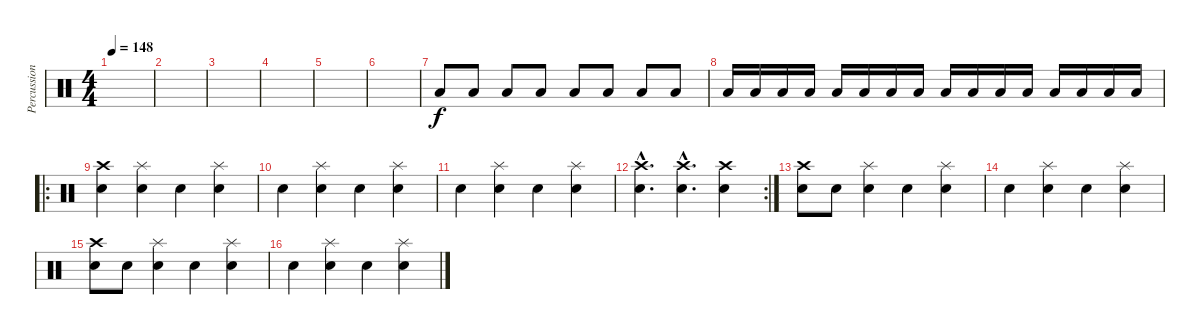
\track ("Percussions" "Percussion") {instrument percussion}
\staff {score}
\articulation defaults
\ts (4 4)
\tempo 148
\clef neutral
\ks c
|
|
|
|
|
|
"Low Tom (hit)".8 "Low Tom (hit)".8 "Low Tom (hit)".8 "Low Tom (hit)".8 "Low Tom (hit)".8 "Low Tom (hit)".8 "Low Tom (hit)".8 "Low Tom (hit)".8 |
"Low Tom (hit)".16 "Low Tom (hit)".16 "Low Tom (hit)".16 "Low Tom (hit)".16 "Low Tom (hit)".16 "Low Tom (hit)".16 "Low Tom (hit)".16 "Low Tom (hit)".16 "Low Tom (hit)".16 "Low Tom (hit)".16 "Low Tom (hit)".16 "Low Tom (hit)".16 "Low Tom (hit)".16 "Low Tom (hit)".16 "Low Tom (hit)".16 "Low Tom (hit)".16 |
\ro
("Crash high (hit)" "Snare (hit) 2").4 ("Splash (hit)" "Electric Snare (hit)").4 "Snare (hit) 2".4 ("Splash (hit)" "Electric Snare (hit)").4 |
"Snare (hit) 2".4 ("Splash (hit)" "Electric Snare (hit)").4 "Snare (hit) 2".4 ("Splash (hit)" "Electric Snare (hit)").4 |
"Snare (hit) 2".4 ("Splash (hit)" "Electric Snare (hit)").4 "Snare (hit) 2".4 ("Splash (hit)" "Electric Snare (hit)").4 |
\rc 2
("Crash high (hit)"{hac} "Snare (hit) 2"{hac}).4{d} ("Crash high (hit)"{hac} "Snare (hit) 2"{hac}).4{d} ("Crash high (hit)" "Snare (hit) 2").4 |
("Crash high (hit)" "Snare (hit) 2").8 "Snare (hit) 2".8 ("Splash (hit)" "Electric Snare (hit)").4 "Snare (hit) 2".4 ("Splash (hit)" "Electric Snare (hit)").4 |
"Snare (hit) 2".4 ("Splash (hit)" "Electric Snare (hit)").4 "Snare (hit) 2".4 ("Splash (hit)" "Electric Snare (hit)").4 |
("Crash high (hit)" "Snare (hit) 2").8 "Snare (hit) 2".8 ("Splash (hit)" "Electric Snare (hit)").4 "Snare (hit) 2".4 ("Splash (hit)" "Electric Snare (hit)").4 |
"Snare (hit) 2".4 ("Splash (hit)" "Electric Snare (hit)").4 "Snare (hit) 2".4 ("Splash (hit)" "Electric Snare (hit)").4
